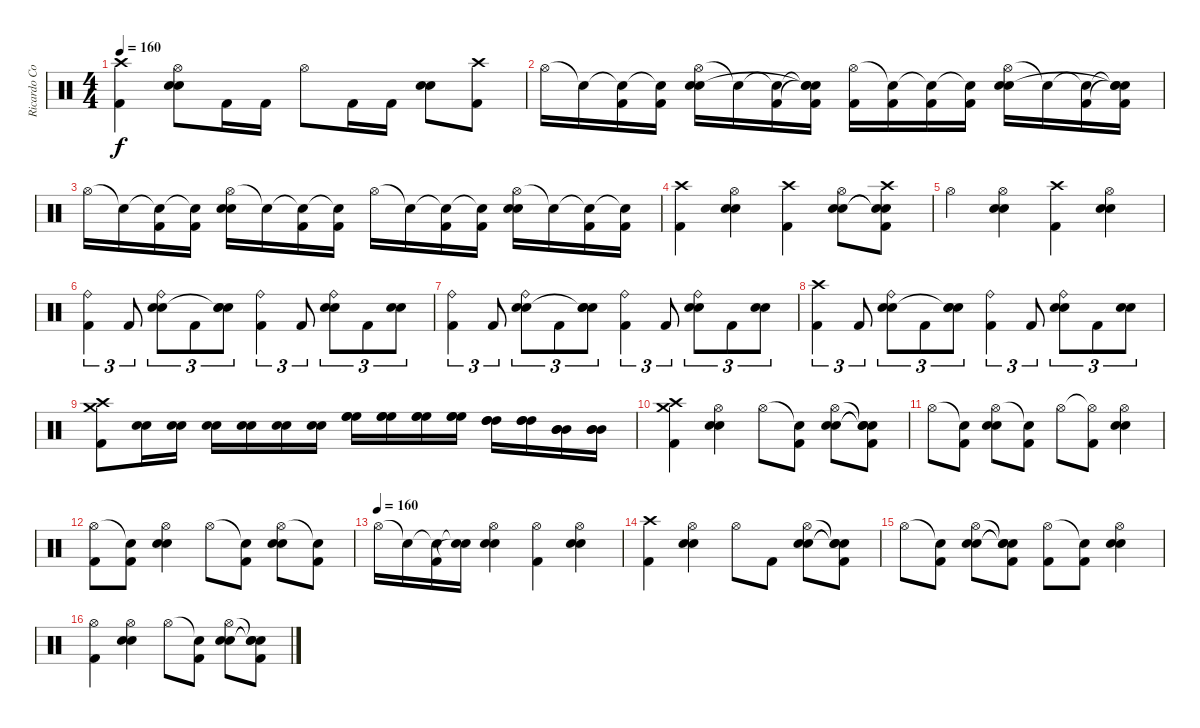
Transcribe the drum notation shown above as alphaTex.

\track ("Ricardo Confessori" "Ricardo Co") {instrument percussion}
\staff {score}
\articulation defaults
\ts (4 4)
\tempo 160
\clef neutral
\ks c
("Crash high (hit)" "Kick (hit) 2").4{dy f} ("Hi-Hat (open)" "Electric Snare (hit)" "Snare (hit) 2").8 "Kick (hit) 2".16 "Kick (hit) 2".16 "Hi-Hat (open)".8 "Kick (hit) 2".16 "Kick (hit) 2".16 ("Electric Snare (hit)" "Snare (hit) 2").8 ("Crash high (hit)" "Kick (hit) 2").8 |
"Hi-Hat (open)".16 "Snare (hit)"{t}.16 ("Snare (hit)"{t} "Kick (hit) 2").16 ("Snare (hit)"{t} "Kick (hit) 2").16 ("Hi-Hat (open)" "Electric Snare (hit)" "Snare (hit) 2").16 "Snare (hit)"{t}.16 ("Snare (hit)"{t} "Kick (hit) 2").16 ("Snare (hit)"{t} "Snare (hit)"{t} "Snare (hit)"{t} "Kick (hit) 2").16 ("Hi-Hat (open)" "Kick (hit) 2").16 ("Snare (hit)"{t} "Kick (hit) 2").16 ("Snare (hit)"{t} "Kick (hit) 2").16 ("Snare (hit)"{t} "Kick (hit) 2").16 ("Hi-Hat (open)" "Electric Snare (hit)" "Snare (hit) 2").16 "Snare (hit)"{t}.16 ("Snare (hit)"{t} "Kick (hit) 2").16 ("Snare (hit)"{t} "Snare (hit)"{t} "Snare (hit)"{t} "Kick (hit) 2").16 |
"Hi-Hat (open)".16 "Snare (hit)"{t}.16 ("Snare (hit)"{t} "Kick (hit) 2").16 ("Snare (hit)"{t} "Kick (hit) 2").16 ("Hi-Hat (open)" "Electric Snare (hit)" "Snare (hit) 2").16 "Snare (hit)"{t}.16 ("Snare (hit)"{t} "Kick (hit) 2").16 ("Snare (hit)"{t} "Kick (hit) 2").16 "Hi-Hat (open)".16 "Snare (hit)"{t}.16 ("Snare (hit)"{t} "Kick (hit) 2").16 ("Snare (hit)"{t} "Kick (hit) 2").16 ("Hi-Hat (open)" "Electric Snare (hit)" "Snare (hit) 2").16 "Snare (hit)"{t}.16 ("Snare (hit)"{t} "Kick (hit) 2").16 ("Snare (hit)"{t} "Kick (hit) 2").16 |
("Crash high (hit)" "Kick (hit) 2").4 ("Hi-Hat (open)" "Electric Snare (hit)" "Snare (hit) 2").4 ("Crash high (hit)" "Kick (hit) 2").4 ("Hi-Hat (open)" "Electric Snare (hit)" "Snare (hit) 2").8 ("Crash high (hit)" "Snare (hit)"{t} "Snare (hit)"{t} "Kick (hit) 2").8 |
"Hi-Hat (open)".4 ("Hi-Hat (open)" "Electric Snare (hit)" "Snare (hit) 2").4 ("Crash high (hit)" "Kick (hit) 2").4 ("Hi-Hat (open)" "Electric Snare (hit)" "Snare (hit) 2").4 |
("Ride (bell)" "Kick (hit) 2").4{tu (3 2)} "Kick (hit) 2".8{tu (3 2)} ("Ride (bell)" "Electric Snare (hit)" "Snare (hit) 2").8{tu (3 2)} "Kick (hit) 2".8{tu (3 2)} ("Electric Snare (hit)" "Snare (hit) 2" "Snare (hit)"{t}).8{tu (3 2)} ("Ride (bell)" "Kick (hit) 2").4{tu (3 2)} "Kick (hit) 2".8{tu (3 2)} ("Ride (bell)" "Electric Snare (hit)" "Snare (hit) 2").8{tu (3 2)} "Kick (hit) 2".8{tu (3 2)} ("Electric Snare (hit)" "Snare (hit) 2").8{tu (3 2)} |
("Ride (bell)" "Kick (hit) 2").4{tu (3 2)} "Kick (hit) 2".8{tu (3 2)} ("Ride (bell)" "Electric Snare (hit)" "Snare (hit) 2").8{tu (3 2)} "Kick (hit) 2".8{tu (3 2)} ("Electric Snare (hit)" "Snare (hit) 2" "Snare (hit)"{t}).8{tu (3 2)} ("Ride (bell)" "Kick (hit) 2").4{tu (3 2)} "Kick (hit) 2".8{tu (3 2)} ("Ride (bell)" "Electric Snare (hit)" "Snare (hit) 2").8{tu (3 2)} "Kick (hit) 2".8{tu (3 2)} ("Electric Snare (hit)" "Snare (hit) 2").8{tu (3 2)} |
("Crash high (hit)" "Kick (hit) 2").4{tu (3 2)} "Kick (hit) 2".8{tu (3 2)} ("Ride (bell)" "Electric Snare (hit)" "Snare (hit) 2").8{tu (3 2)} "Kick (hit) 2".8{tu (3 2)} ("Electric Snare (hit)" "Snare (hit) 2" "Snare (hit)"{t}).8{tu (3 2)} ("Ride (bell)" "Kick (hit) 2").4{tu (3 2)} "Kick (hit) 2".8{tu (3 2)} ("Ride (bell)" "Electric Snare (hit)" "Snare (hit) 2").8{tu (3 2)} "Kick (hit) 2".8{tu (3 2)} ("Electric Snare (hit)" "Snare (hit) 2").8{tu (3 2)} |
("Crash high (hit)" "Crash medium (hit)" "Kick (hit) 2").8 ("Electric Snare (hit)" "Snare (hit) 2").16 ("Electric Snare (hit)" "Snare (hit) 2").16 ("Electric Snare (hit)" "Snare (hit) 2").16 ("Electric Snare (hit)" "Snare (hit) 2").16 ("Electric Snare (hit)" "Snare (hit) 2").16 ("Electric Snare (hit)" "Snare (hit) 2").16 ("High Floor Tom (hit)" "High Floor Tom (hit)" "High Floor Tom (hit)").16 ("High Floor Tom (hit)" "High Floor Tom (hit)" "High Floor Tom (hit)").16 ("High Floor Tom (hit)" "High Floor Tom (hit)" "High Floor Tom (hit)").16 ("High Floor Tom (hit)" "High Floor Tom (hit)" "High Floor Tom (hit)").16 ("High Tom (hit)" "High Tom (hit)" "High Tom (hit)").16 ("High Tom (hit)" "High Tom (hit)" "High Tom (hit)").16 ("Mid Tom (hit)" "Mid Tom (hit)" "Mid Tom (hit)").16 ("Mid Tom (hit)" "Mid Tom (hit)" "Mid Tom (hit)").16 |
("Crash high (hit)" "Crash medium (hit)" "Kick (hit) 2").4 ("Hi-Hat (open)" "Electric Snare (hit)" "Snare (hit) 2").4 "Hi-Hat (open)".8 ("Snare (hit)"{t} "Kick (hit) 2").8 ("Hi-Hat (open)" "Electric Snare (hit)" "Snare (hit) 2").8 ("Snare (hit)"{t} "Snare (hit)"{t} "Snare (hit)"{t} "Kick (hit) 2").8 |
"Hi-Hat (open)".8 ("Snare (hit)"{t} "Kick (hit) 2").8 ("Hi-Hat (open)" "Electric Snare (hit)" "Snare (hit) 2").8 ("Snare (hit)"{t} "Kick (hit) 2").8 "Hi-Hat (open)".8 ("Hi-Hat (open)"{t} "Kick (hit) 2").8 ("Hi-Hat (open)" "Electric Snare (hit)" "Snare (hit) 2").4 |
("Hi-Hat (open)" "Kick (hit) 2").8 ("Snare (hit)"{t} "Kick (hit) 2").8 ("Hi-Hat (open)" "Electric Snare (hit)" "Snare (hit) 2").4 "Hi-Hat (open)".8 ("Snare (hit)"{t} "Kick (hit) 2").8 ("Hi-Hat (open)" "Electric Snare (hit)" "Snare (hit) 2").8 ("Snare (hit)"{t} "Kick (hit) 2").8 |
\tempo (160)
"Hi-Hat (open)".16 "Snare (hit)"{t}.16 ("Snare (hit)"{t} "Kick (hit) 2").16 ("Snare (hit)"{t} "Snare (hit)"{t}).16 ("Hi-Hat (open)" "Electric Snare (hit)" "Snare (hit) 2").4 ("Hi-Hat (open)" "Kick (hit) 2").4 ("Hi-Hat (open)" "Electric Snare (hit)" "Snare (hit) 2").4 |
("Crash high (hit)" "Kick (hit) 2").4 ("Hi-Hat (open)" "Electric Snare (hit)" "Snare (hit) 2").4 "Hi-Hat (open)".8 "Kick (hit) 2".8 ("Hi-Hat (open)" "Electric Snare (hit)" "Snare (hit) 2").8 ("Snare (hit)"{t} "Snare (hit)"{t} "Snare (hit)"{t} "Kick (hit) 2").8 |
"Hi-Hat (open)".8 ("Snare (hit)"{t} "Kick (hit) 2").8 ("Hi-Hat (open)" "Electric Snare (hit)" "Snare (hit) 2").8 ("Snare (hit)"{t} "Snare (hit)"{t} "Snare (hit)"{t} "Kick (hit) 2").8 ("Hi-Hat (open)" "Kick (hit) 2").8 ("Snare (hit)"{t} "Kick (hit) 2").8 ("Hi-Hat (open)" "Electric Snare (hit)" "Snare (hit) 2").4 |
("Hi-Hat (open)" "Kick (hit) 2").4 ("Hi-Hat (open)" "Electric Snare (hit)" "Snare (hit) 2").4 "Hi-Hat (open)".8 ("Snare (hit)"{t} "Kick (hit) 2").8 ("Hi-Hat (open)" "Electric Snare (hit)" "Snare (hit) 2").8 ("Snare (hit)"{t} "Snare (hit)"{t} "Snare (hit)"{t} "Kick (hit) 2").8
